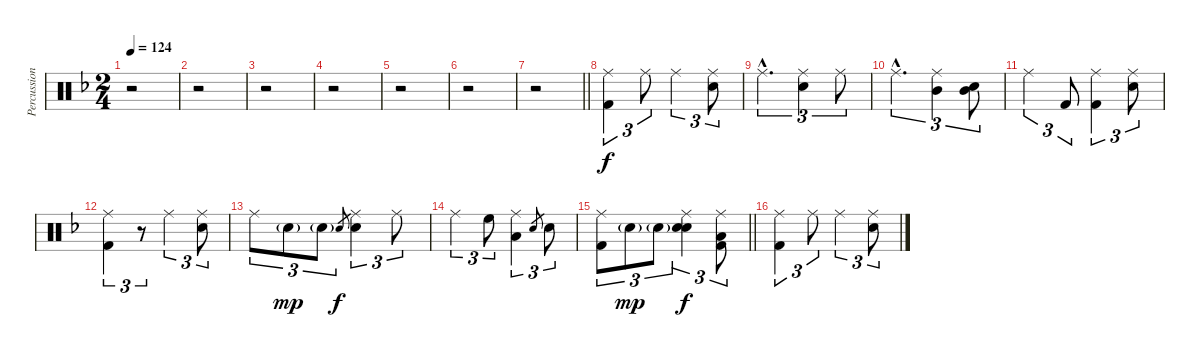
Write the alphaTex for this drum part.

\track ("Percussions" "Percussion") {instrument percussion}
\staff {score}
\articulation defaults
\ts (2 4)
\tempo 124
\clef neutral
\ks dminor
r.2{dy fff} |
r.2 |
r.2 |
r.2 |
r.2 |
r.2 |
\barLineRight lightlight
r.2 |
("Ride (middle)" "Kick (hit) 2").4{tu (3 2) dy f volume 12} "Ride (middle)".8{tu (3 2)} "Ride (middle)".4{tu (3 2)} ("Ride (middle)" "Snare (hit) 2").8{tu (3 2)} |
"Ride (middle)"{hac}.4{d tu (3 2)} ("Ride (middle)" "Snare (hit) 2").4{tu (3 2)} "Ride (middle)".8{tu (3 2)} |
"Ride (middle)"{hac}.4{d tu (3 2)} ("Ride (middle)" "Mid Tom (hit)").4{tu (3 2)} ("Mid Tom (hit)" "Snare (hit) 2").8{tu (3 2)} |
"Ride (middle)".4{tu (3 2)} "Kick (hit) 2".8{tu (3 2)} ("Ride (middle)" "Kick (hit) 2").4{tu (3 2)} ("Ride (middle)" "Snare (hit) 2").8{tu (3 2)} |
("Ride (middle)" "Kick (hit) 2").4{tu (3 2)} r.8{tu (3 2)} "Ride (middle)".4{tu (3 2)} ("Ride (middle)" "Snare (hit) 2").8{tu (3 2)} |
"Ride (middle)".8{tu (3 2)} "Snare (hit) 2"{g}.8{tu (3 2) dy mp} "Snare (hit) 2"{g}.8{tu (3 2)} "Snare (hit) 2".8{gr dy f} ("Ride (middle)" "Snare (hit) 2").4{tu (3 2)} "Ride (middle)".8{tu (3 2)} |
"Ride (middle)".4{tu (3 2)} "High Floor Tom (hit)".8{tu (3 2)} ("Ride (middle)" "Low Tom (hit)").4{tu (3 2)} "Snare (hit) 2".8{gr} "Snare (hit) 2".8{tu (3 2)} |
\barLineRight lightlight
("Ride (middle)" "Kick (hit) 2").8{tu (3 2)} "Snare (hit) 2"{g}.8{tu (3 2) dy mp} "Snare (hit) 2"{g}.8{tu (3 2)} ("Ride (middle)" "Snare (hit) 2" "Electric Snare (hit)").4{tu (3 2) dy f} ("Ride (middle)" "Low Tom (hit)" "Kick (hit) 2").8{tu (3 2)} |
("Ride (middle)" "Kick (hit) 2").4{tu (3 2)} "Ride (middle)".8{tu (3 2)} "Ride (middle)".4{tu (3 2)} ("Ride (middle)" "Snare (hit) 2").8{tu (3 2)}
